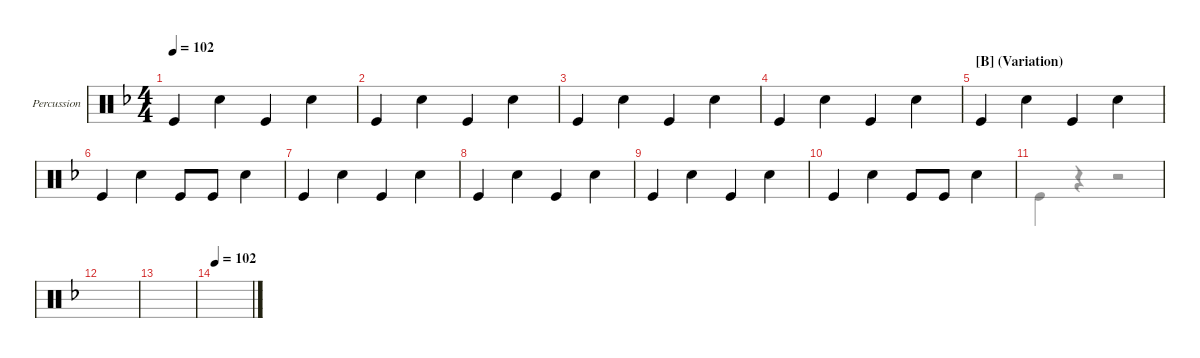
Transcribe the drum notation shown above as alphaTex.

\defaultSystemsLayout 4
\hideDynamics
\bracketExtendMode groupsimilarinstruments
\firstSystemTrackNameMode fullname
\otherSystemsTrackNameMode fullname
\firstSystemTrackNameOrientation horizontal
\otherSystemsTrackNameOrientation horizontal
\track ("Percussion" "Perc.") {instrument percussion}
\staff {score}
\articulation defaults
\voice
\ts (4 4)
\tempo 102
\clef neutral
\ks dminor "Kick (hit)".4{dy mf} "Snare (hit) 2".4 "Kick (hit)".4 "Snare (hit) 2".4
|
"Kick (hit)".4 "Snare (hit) 2".4 "Kick (hit)".4 "Snare (hit) 2".4 |
"Kick (hit)".4 "Snare (hit) 2".4 "Kick (hit)".4 "Snare (hit) 2".4 |
"Kick (hit)".4 "Snare (hit) 2".4 "Kick (hit)".4 "Snare (hit) 2".4 |
\section ("B" "(Variation)")
"Kick (hit)".4 "Snare (hit) 2".4 "Kick (hit)".4 "Snare (hit) 2".4 |
"Kick (hit)".4 "Snare (hit) 2".4 "Kick (hit)".8 "Kick (hit)".8 "Snare (hit) 2".4 |
"Kick (hit)".4 "Snare (hit) 2".4 "Kick (hit)".4 "Snare (hit) 2".4 |
"Kick (hit)".4 "Snare (hit) 2".4 "Kick (hit)".4 "Snare (hit) 2".4 |
"Kick (hit)".4 "Snare (hit) 2".4 "Kick (hit)".4 "Snare (hit) 2".4 |
"Kick (hit)".4 "Snare (hit) 2".4 "Kick (hit)".8 "Kick (hit)".8 "Snare (hit) 2".4 |
|
|
|
\tempo 102
\tempo (85 0.95625 hide)
|
|
\voice
\clef neutral
\ottava regular
\simile none
\ks dminor
|
|
|
|
|
|
|
|
|
|
"Kick (hit)".4 r.4 r.2 |
|
|
|
|
